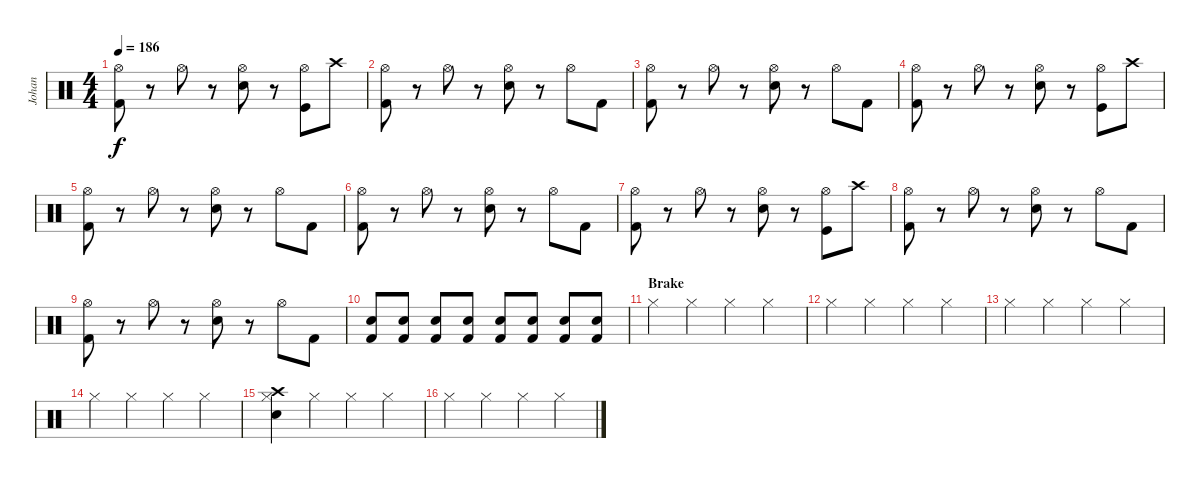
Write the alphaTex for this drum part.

\track ("Johan" "Johan") {instrument percussion}
\staff {score}
\articulation defaults
\ts (4 4)
\tempo 186
\clef neutral
\ks c
("Hi-Hat (open)" "Kick (hit) 2").8{dy f} r.8 "Hi-Hat (open)".8 r.8 ("Hi-Hat (open)" "Snare (hit) 2").8 r.8 ("Hi-Hat (open)" "Kick (hit)").8 "Crash high (hit)".8 |
("Hi-Hat (open)" "Kick (hit) 2").8 r.8 "Hi-Hat (open)".8 r.8 ("Hi-Hat (open)" "Snare (hit) 2").8 r.8 "Hi-Hat (open)".8 "Kick (hit) 2".8 |
("Hi-Hat (open)" "Kick (hit) 2").8 r.8 "Hi-Hat (open)".8 r.8 ("Hi-Hat (open)" "Snare (hit) 2").8 r.8 "Hi-Hat (open)".8 "Kick (hit) 2".8 |
("Hi-Hat (open)" "Kick (hit) 2").8 r.8 "Hi-Hat (open)".8 r.8 ("Hi-Hat (open)" "Snare (hit) 2").8 r.8 ("Hi-Hat (open)" "Kick (hit)").8 "Crash high (hit)".8 |
("Hi-Hat (open)" "Kick (hit) 2").8 r.8 "Hi-Hat (open)".8 r.8 ("Hi-Hat (open)" "Snare (hit) 2").8 r.8 "Hi-Hat (open)".8 "Kick (hit) 2".8 |
("Hi-Hat (open)" "Kick (hit) 2").8 r.8 "Hi-Hat (open)".8 r.8 ("Hi-Hat (open)" "Snare (hit) 2").8 r.8 "Hi-Hat (open)".8 "Kick (hit) 2".8 |
("Hi-Hat (open)" "Kick (hit) 2").8 r.8 "Hi-Hat (open)".8 r.8 ("Hi-Hat (open)" "Snare (hit) 2").8 r.8 ("Hi-Hat (open)" "Kick (hit)").8 "Crash high (hit)".8 |
("Hi-Hat (open)" "Kick (hit) 2").8 r.8 "Hi-Hat (open)".8 r.8 ("Hi-Hat (open)" "Snare (hit) 2").8 r.8 "Hi-Hat (open)".8 "Kick (hit) 2".8 |
("Hi-Hat (open)" "Kick (hit) 2").8 r.8 "Hi-Hat (open)".8 r.8 ("Hi-Hat (open)" "Snare (hit) 2").8 r.8 "Hi-Hat (open)".8 "Kick (hit) 2".8 |
("Snare (hit) 2" "Kick (hit) 2").8 ("Snare (hit) 2" "Kick (hit) 2").8 ("Snare (hit) 2" "Kick (hit) 2").8 ("Snare (hit) 2" "Kick (hit) 2").8 ("Snare (hit) 2" "Kick (hit) 2").8 ("Snare (hit) 2" "Kick (hit) 2").8 ("Snare (hit) 2" "Kick (hit) 2").8 ("Snare (hit) 2" "Kick (hit) 2").8 |
\section ("" "Brake")
"Hi-Hat (closed)".4 "Hi-Hat (closed)".4 "Hi-Hat (closed)".4 "Hi-Hat (closed)".4 |
"Hi-Hat (closed)".4 "Hi-Hat (closed)".4 "Hi-Hat (closed)".4 "Hi-Hat (closed)".4 |
"Hi-Hat (closed)".4 "Hi-Hat (closed)".4 "Hi-Hat (closed)".4 "Hi-Hat (closed)".4 |
"Hi-Hat (closed)".4 "Hi-Hat (closed)".4 "Hi-Hat (closed)".4 "Hi-Hat (closed)".4 |
("Hi-Hat (closed)" "Snare (hit) 2" "Crash high (hit)").4 "Hi-Hat (closed)".4 "Hi-Hat (closed)".4 "Hi-Hat (closed)".4 |
"Hi-Hat (closed)".4 "Hi-Hat (closed)".4 "Hi-Hat (closed)".4 "Hi-Hat (closed)".4
